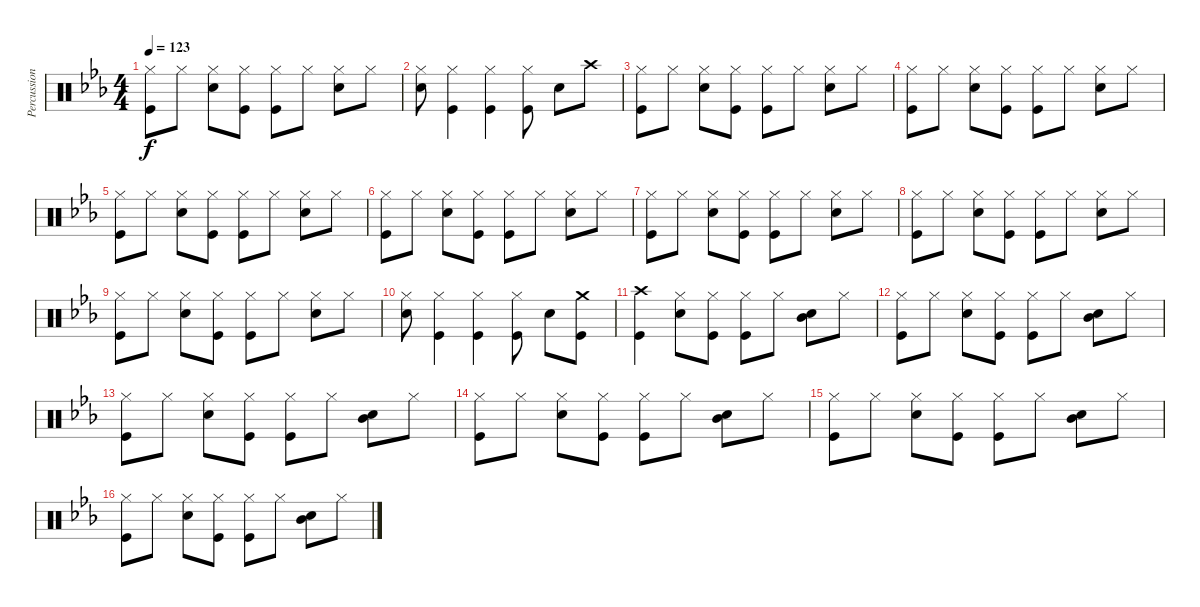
\track ("Percussion" "Percussion") {instrument percussion}
\staff {score}
\articulation defaults
\ts (4 4)
\tempo 123
\clef neutral
\ks eb
("Hi-Hat (closed)" "Kick (hit)").8{dy f} "Hi-Hat (closed)".8 ("Hi-Hat (closed)" "Snare (hit) 2").8 ("Hi-Hat (closed)" "Kick (hit)").8 ("Hi-Hat (closed)" "Kick (hit)").8 "Hi-Hat (closed)".8 ("Hi-Hat (closed)" "Snare (hit) 2").8 "Hi-Hat (closed)".8 |
("Hi-Hat (closed)" "Snare (hit) 2").8 ("Hi-Hat (closed)" "Kick (hit)").4 ("Hi-Hat (closed)" "Kick (hit)").4 ("Hi-Hat (closed)" "Kick (hit)").8 "Snare (hit) 2".8 "Crash high (hit)".8 |
("Hi-Hat (closed)" "Kick (hit)").8 "Hi-Hat (closed)".8 ("Hi-Hat (closed)" "Snare (hit) 2").8 ("Hi-Hat (closed)" "Kick (hit)").8 ("Hi-Hat (closed)" "Kick (hit)").8 "Hi-Hat (closed)".8 ("Hi-Hat (closed)" "Snare (hit) 2").8 "Hi-Hat (closed)".8 |
("Hi-Hat (closed)" "Kick (hit)").8 "Hi-Hat (closed)".8 ("Hi-Hat (closed)" "Snare (hit) 2").8 ("Hi-Hat (closed)" "Kick (hit)").8 ("Hi-Hat (closed)" "Kick (hit)").8 "Hi-Hat (closed)".8 ("Hi-Hat (closed)" "Snare (hit) 2").8 "Hi-Hat (closed)".8 |
("Hi-Hat (closed)" "Kick (hit)").8 "Hi-Hat (closed)".8 ("Hi-Hat (closed)" "Snare (hit) 2").8 ("Hi-Hat (closed)" "Kick (hit)").8 ("Hi-Hat (closed)" "Kick (hit)").8 "Hi-Hat (closed)".8 ("Hi-Hat (closed)" "Snare (hit) 2").8 "Hi-Hat (closed)".8 |
("Hi-Hat (closed)" "Kick (hit)").8 "Hi-Hat (closed)".8 ("Hi-Hat (closed)" "Snare (hit) 2").8 ("Hi-Hat (closed)" "Kick (hit)").8 ("Hi-Hat (closed)" "Kick (hit)").8 "Hi-Hat (closed)".8 ("Hi-Hat (closed)" "Snare (hit) 2").8 "Hi-Hat (closed)".8 |
("Hi-Hat (closed)" "Kick (hit)").8 "Hi-Hat (closed)".8 ("Hi-Hat (closed)" "Snare (hit) 2").8 ("Hi-Hat (closed)" "Kick (hit)").8 ("Hi-Hat (closed)" "Kick (hit)").8 "Hi-Hat (closed)".8 ("Hi-Hat (closed)" "Snare (hit) 2").8 "Hi-Hat (closed)".8 |
("Hi-Hat (closed)" "Kick (hit)").8 "Hi-Hat (closed)".8 ("Hi-Hat (closed)" "Snare (hit) 2").8 ("Hi-Hat (closed)" "Kick (hit)").8 ("Hi-Hat (closed)" "Kick (hit)").8 "Hi-Hat (closed)".8 ("Hi-Hat (closed)" "Snare (hit) 2").8 "Hi-Hat (closed)".8 |
("Hi-Hat (closed)" "Kick (hit)").8 "Hi-Hat (closed)".8 ("Hi-Hat (closed)" "Snare (hit) 2").8 ("Hi-Hat (closed)" "Kick (hit)").8 ("Hi-Hat (closed)" "Kick (hit)").8 "Hi-Hat (closed)".8 ("Hi-Hat (closed)" "Snare (hit) 2").8 "Hi-Hat (closed)".8 |
("Hi-Hat (closed)" "Snare (hit) 2").8 ("Hi-Hat (closed)" "Kick (hit)").4 ("Hi-Hat (closed)" "Kick (hit)").4 ("Hi-Hat (closed)" "Kick (hit)").8 "Snare (hit) 2".8 ("Crash medium (hit)" "Kick (hit)").8 |
("Crash high (hit)" "Kick (hit)").4 ("Hi-Hat (closed)" "Snare (hit) 2").8 ("Hi-Hat (closed)" "Kick (hit)").8 ("Hi-Hat (closed)" "Kick (hit)").8 "Hi-Hat (closed)".8 ("Mid Tom (hit)" "Snare (hit) 2").8 "Hi-Hat (closed)".8 |
("Hi-Hat (closed)" "Kick (hit)").8 "Hi-Hat (closed)".8 ("Hi-Hat (closed)" "Snare (hit) 2").8 ("Hi-Hat (closed)" "Kick (hit)").8 ("Hi-Hat (closed)" "Kick (hit)").8 "Hi-Hat (closed)".8 ("Mid Tom (hit)" "Snare (hit) 2").8 "Hi-Hat (closed)".8 |
("Hi-Hat (closed)" "Kick (hit)").8 "Hi-Hat (closed)".8 ("Hi-Hat (closed)" "Snare (hit) 2").8 ("Hi-Hat (closed)" "Kick (hit)").8 ("Hi-Hat (closed)" "Kick (hit)").8 "Hi-Hat (closed)".8 ("Mid Tom (hit)" "Snare (hit) 2").8 "Hi-Hat (closed)".8 |
("Hi-Hat (closed)" "Kick (hit)").8 "Hi-Hat (closed)".8 ("Hi-Hat (closed)" "Snare (hit) 2").8 ("Hi-Hat (closed)" "Kick (hit)").8 ("Hi-Hat (closed)" "Kick (hit)").8 "Hi-Hat (closed)".8 ("Mid Tom (hit)" "Snare (hit) 2").8 "Hi-Hat (closed)".8 |
("Hi-Hat (closed)" "Kick (hit)").8 "Hi-Hat (closed)".8 ("Hi-Hat (closed)" "Snare (hit) 2").8 ("Hi-Hat (closed)" "Kick (hit)").8 ("Hi-Hat (closed)" "Kick (hit)").8 "Hi-Hat (closed)".8 ("Mid Tom (hit)" "Snare (hit) 2").8 "Hi-Hat (closed)".8 |
("Hi-Hat (closed)" "Kick (hit)").8 "Hi-Hat (closed)".8 ("Hi-Hat (closed)" "Snare (hit) 2").8 ("Hi-Hat (closed)" "Kick (hit)").8 ("Hi-Hat (closed)" "Kick (hit)").8 "Hi-Hat (closed)".8 ("Mid Tom (hit)" "Snare (hit) 2").8 "Hi-Hat (closed)".8
